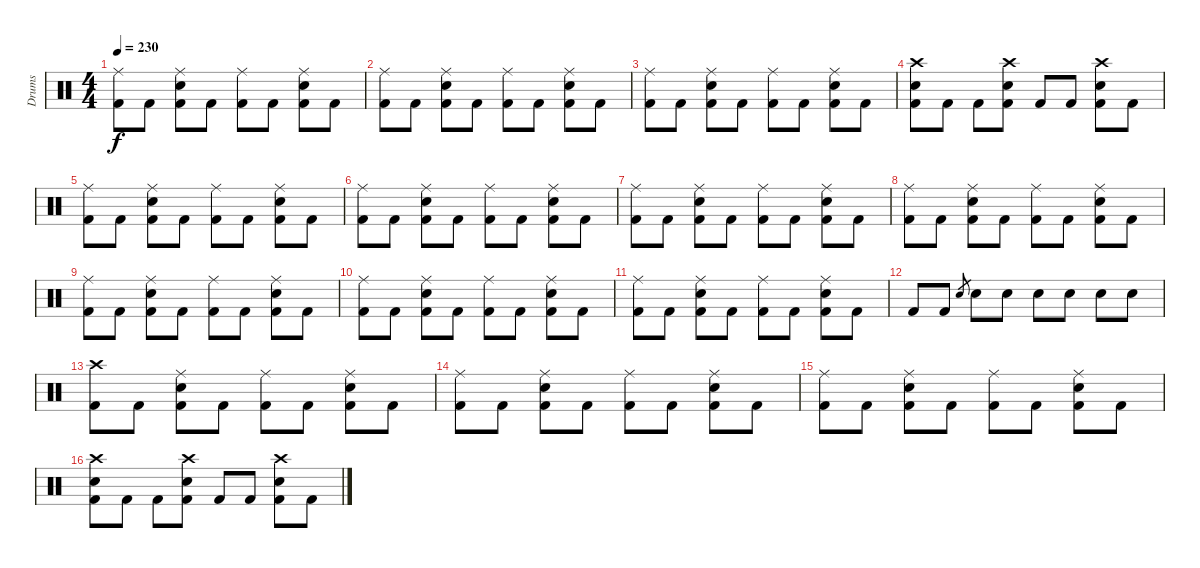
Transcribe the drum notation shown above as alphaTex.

\track ("Drums" "Drums") {instrument percussion}
\staff {score}
\articulation defaults
\ts (4 4)
\tempo 230
\clef neutral
\ks c
("Ride (middle)" "Kick (hit) 2").8{dy f} "Kick (hit) 2".8 ("Ride (middle)" "Electric Snare (hit)" "Kick (hit) 2").8 "Kick (hit) 2".8 ("Ride (middle)" "Kick (hit) 2").8 "Kick (hit) 2".8 ("Ride (middle)" "Electric Snare (hit)" "Kick (hit) 2").8 "Kick (hit) 2".8 |
("Ride (middle)" "Kick (hit) 2").8 "Kick (hit) 2".8 ("Ride (middle)" "Electric Snare (hit)" "Kick (hit) 2").8 "Kick (hit) 2".8 ("Ride (middle)" "Kick (hit) 2").8 "Kick (hit) 2".8 ("Ride (middle)" "Electric Snare (hit)" "Kick (hit) 2").8 "Kick (hit) 2".8 |
("Ride (middle)" "Kick (hit) 2").8 "Kick (hit) 2".8 ("Ride (middle)" "Electric Snare (hit)" "Kick (hit) 2").8 "Kick (hit) 2".8 ("Ride (middle)" "Kick (hit) 2").8 "Kick (hit) 2".8 ("Ride (middle)" "Electric Snare (hit)" "Kick (hit) 2").8 "Kick (hit) 2".8 |
("Crash high (hit)" "Electric Snare (hit)" "Kick (hit) 2").8 "Kick (hit) 2".8 "Kick (hit) 2".8 ("Crash high (hit)" "Electric Snare (hit)" "Kick (hit) 2").8 "Kick (hit) 2".8 "Kick (hit) 2".8 ("Crash high (hit)" "Electric Snare (hit)" "Kick (hit) 2").8 "Kick (hit) 2".8 |
("Ride (middle)" "Kick (hit) 2").8 "Kick (hit) 2".8 ("Ride (middle)" "Electric Snare (hit)" "Kick (hit) 2").8 "Kick (hit) 2".8 ("Ride (middle)" "Kick (hit) 2").8 "Kick (hit) 2".8 ("Ride (middle)" "Electric Snare (hit)" "Kick (hit) 2").8 "Kick (hit) 2".8 |
("Ride (middle)" "Kick (hit) 2").8 "Kick (hit) 2".8 ("Ride (middle)" "Electric Snare (hit)" "Kick (hit) 2").8 "Kick (hit) 2".8 ("Ride (middle)" "Kick (hit) 2").8 "Kick (hit) 2".8 ("Ride (middle)" "Electric Snare (hit)" "Kick (hit) 2").8 "Kick (hit) 2".8 |
("Ride (middle)" "Kick (hit) 2").8 "Kick (hit) 2".8 ("Ride (middle)" "Electric Snare (hit)" "Kick (hit) 2").8 "Kick (hit) 2".8 ("Ride (middle)" "Kick (hit) 2").8 "Kick (hit) 2".8 ("Ride (middle)" "Electric Snare (hit)" "Kick (hit) 2").8 "Kick (hit) 2".8 |
("Ride (middle)" "Kick (hit) 2").8 "Kick (hit) 2".8 ("Ride (middle)" "Electric Snare (hit)" "Kick (hit) 2").8 "Kick (hit) 2".8 ("Ride (middle)" "Kick (hit) 2").8 "Kick (hit) 2".8 ("Ride (middle)" "Electric Snare (hit)" "Kick (hit) 2").8 "Kick (hit) 2".8 |
("Ride (middle)" "Kick (hit) 2").8 "Kick (hit) 2".8 ("Ride (middle)" "Electric Snare (hit)" "Kick (hit) 2").8 "Kick (hit) 2".8 ("Ride (middle)" "Kick (hit) 2").8 "Kick (hit) 2".8 ("Ride (middle)" "Electric Snare (hit)" "Kick (hit) 2").8 "Kick (hit) 2".8 |
("Ride (middle)" "Kick (hit) 2").8 "Kick (hit) 2".8 ("Ride (middle)" "Electric Snare (hit)" "Kick (hit) 2").8 "Kick (hit) 2".8 ("Ride (middle)" "Kick (hit) 2").8 "Kick (hit) 2".8 ("Ride (middle)" "Electric Snare (hit)" "Kick (hit) 2").8 "Kick (hit) 2".8 |
("Ride (middle)" "Kick (hit) 2").8 "Kick (hit) 2".8 ("Ride (middle)" "Electric Snare (hit)" "Kick (hit) 2").8 "Kick (hit) 2".8 ("Ride (middle)" "Kick (hit) 2").8 "Kick (hit) 2".8 ("Ride (middle)" "Electric Snare (hit)" "Kick (hit) 2").8 "Kick (hit) 2".8 |
"Kick (hit) 2".8 "Kick (hit) 2".8 "Electric Snare (hit)".8{gr} "Electric Snare (hit)".8 "Electric Snare (hit)".8 "Electric Snare (hit)".8 "Electric Snare (hit)".8 "Electric Snare (hit)".8 "Electric Snare (hit)".8 |
("Crash high (hit)" "Kick (hit) 2").8 "Kick (hit) 2".8 ("Ride (middle)" "Electric Snare (hit)" "Kick (hit) 2").8 "Kick (hit) 2".8 ("Ride (middle)" "Kick (hit) 2").8 "Kick (hit) 2".8 ("Ride (middle)" "Electric Snare (hit)" "Kick (hit) 2").8 "Kick (hit) 2".8 |
("Ride (middle)" "Kick (hit) 2").8 "Kick (hit) 2".8 ("Ride (middle)" "Electric Snare (hit)" "Kick (hit) 2").8 "Kick (hit) 2".8 ("Ride (middle)" "Kick (hit) 2").8 "Kick (hit) 2".8 ("Ride (middle)" "Electric Snare (hit)" "Kick (hit) 2").8 "Kick (hit) 2".8 |
("Ride (middle)" "Kick (hit) 2").8 "Kick (hit) 2".8 ("Ride (middle)" "Electric Snare (hit)" "Kick (hit) 2").8 "Kick (hit) 2".8 ("Ride (middle)" "Kick (hit) 2").8 "Kick (hit) 2".8 ("Ride (middle)" "Electric Snare (hit)" "Kick (hit) 2").8 "Kick (hit) 2".8 |
("Crash high (hit)" "Electric Snare (hit)" "Kick (hit) 2").8 "Kick (hit) 2".8 "Kick (hit) 2".8 ("Crash high (hit)" "Electric Snare (hit)" "Kick (hit) 2").8 "Kick (hit) 2".8 "Kick (hit) 2".8 ("Crash high (hit)" "Electric Snare (hit)" "Kick (hit) 2").8 "Kick (hit) 2".8
